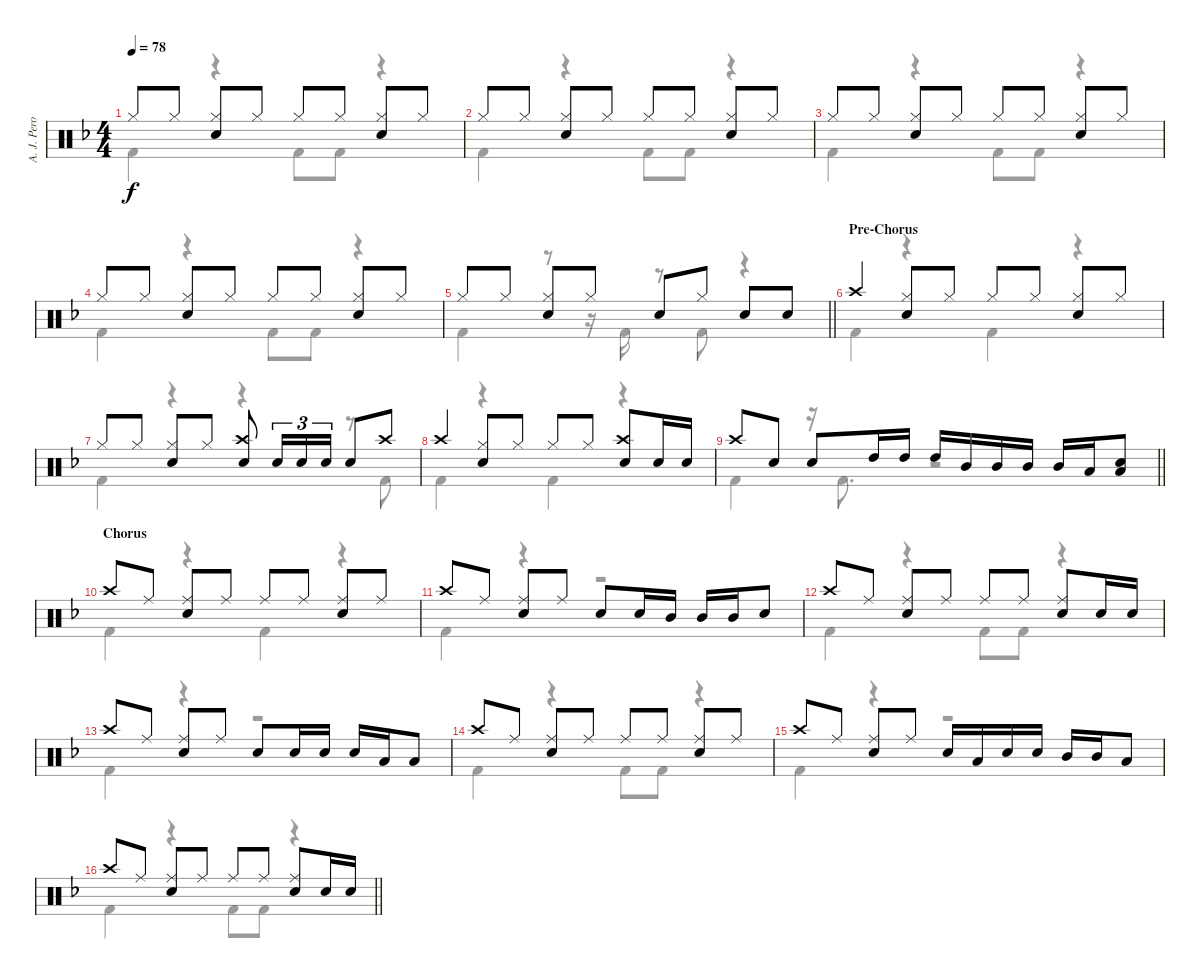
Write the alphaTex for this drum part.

\track ("A. J. Pero" "A. J. Pero") {instrument percussion}
\staff {score}
\articulation defaults
\voice
\ts (4 4)
\tempo 78
\clef neutral
\ks dminor "Hi-Hat (closed)".8{dy f} "Hi-Hat (closed)".8
("Hi-Hat (closed)" "Snare (hit) 2").8 "Hi-Hat (closed)".8 "Hi-Hat (closed)".8 "Hi-Hat (closed)".8 ("Hi-Hat (closed)" "Snare (hit) 2").8 "Hi-Hat (closed)".8 |
"Hi-Hat (closed)".8 "Hi-Hat (closed)".8 ("Hi-Hat (closed)" "Snare (hit) 2").8 "Hi-Hat (closed)".8 "Hi-Hat (closed)".8 "Hi-Hat (closed)".8 ("Hi-Hat (closed)" "Snare (hit) 2").8 "Hi-Hat (closed)".8 |
"Hi-Hat (closed)".8 "Hi-Hat (closed)".8 ("Hi-Hat (closed)" "Snare (hit) 2").8 "Hi-Hat (closed)".8 "Hi-Hat (closed)".8 "Hi-Hat (closed)".8 ("Hi-Hat (closed)" "Snare (hit) 2").8 "Hi-Hat (closed)".8 |
"Hi-Hat (closed)".8 "Hi-Hat (closed)".8 ("Hi-Hat (closed)" "Snare (hit) 2").8 "Hi-Hat (closed)".8 "Hi-Hat (closed)".8 "Hi-Hat (closed)".8 ("Hi-Hat (closed)" "Snare (hit) 2").8 "Hi-Hat (closed)".8 |
\barLineRight lightlight "Hi-Hat (closed)".8 "Hi-Hat (closed)".8
("Hi-Hat (closed)" "Snare (hit) 2").8 "Hi-Hat (closed)".8 "Snare (hit) 2".8 "Hi-Hat (closed)".8 "Snare (hit) 2".8 "Snare (hit) 2".8 |
\section ("" "Pre-Chorus")
"Crash high (hit)".4 ("Hi-Hat (closed)" "Snare (hit) 2").8 "Hi-Hat (closed)".8 "Hi-Hat (closed)".8 "Hi-Hat (closed)".8 ("Hi-Hat (closed)" "Snare (hit) 2").8 "Hi-Hat (closed)".8 |
"Hi-Hat (closed)".8 "Hi-Hat (closed)".8 ("Hi-Hat (closed)" "Snare (hit) 2").8 "Hi-Hat (closed)".8 ("Crash high (hit)" "Snare (hit) 2").8 "Snare (hit) 2".16{tu (3 2)} "Snare (hit) 2".16{tu (3 2)} "Snare (hit) 2".16{tu (3 2)} "Snare (hit) 2".8 "Crash high (hit)".8 |
"Crash high (hit)".4 ("Hi-Hat (closed)" "Snare (hit) 2").8 "Hi-Hat (closed)".8 "Hi-Hat (closed)".8 "Hi-Hat (closed)".8 ("Crash high (hit)" "Snare (hit) 2").8 "Snare (hit) 2".16 "Snare (hit) 2".16 |
\barLineRight lightlight "Crash high (hit)".8 "Snare (hit) 2".8 "Snare (hit) 2".8 "High Tom (hit)".16 "High Tom (hit)".16 "High Tom (hit)".16 "Mid Tom (hit)".16 "Mid Tom (hit)".16 "Mid Tom (hit)".16 "Mid Tom (hit)".16 "Low Tom (hit)".16
("Snare (hit) 2" "Low Tom (hit)").8 |
\section ("" "Chorus")
"Crash high (hit)".8 "Ride (middle)".8 ("Ride (middle)" "Snare (hit) 2").8 "Ride (middle)".8 "Ride (middle)".8 "Ride (middle)".8 ("Ride (middle)" "Snare (hit) 2").8 "Ride (middle)".8 |
"Crash high (hit)".8 "Ride (middle)".8 ("Ride (middle)" "Snare (hit) 2").8 "Ride (middle)".8 "Snare (hit) 2".8 "Snare (hit) 2".16 "Mid Tom (hit)".16 "Mid Tom (hit)".16 "Mid Tom (hit)".16 "Snare (hit) 2".8 |
"Crash high (hit)".8 "Ride (middle)".8 ("Ride (middle)" "Snare (hit) 2").8 "Ride (middle)".8 "Ride (middle)".8 "Ride (middle)".8 ("Ride (middle)" "Snare (hit) 2").8 "Snare (hit) 2".16 "Snare (hit) 2".16 |
"Crash high (hit)".8 "Ride (middle)".8 ("Ride (middle)" "Snare (hit) 2").8 "Ride (middle)".8 "Snare (hit) 2".8 "Snare (hit) 2".16 "Snare (hit) 2".16 "Snare (hit) 2".16 "Low Tom (hit)".16 "Low Tom (hit)".8 |
"Crash high (hit)".8 "Ride (middle)".8 ("Ride (middle)" "Snare (hit) 2").8 "Ride (middle)".8 "Ride (middle)".8 "Ride (middle)".8 ("Ride (middle)" "Snare (hit) 2").8 "Ride (middle)".8 |
"Crash high (hit)".8 "Ride (middle)".8 ("Ride (middle)" "Snare (hit) 2").8 "Ride (middle)".8 "Snare (hit) 2".16 "Low Tom (hit)".16 "Snare (hit) 2".16 "Snare (hit) 2".16 "Mid Tom (hit)".16 "Mid Tom (hit)".16 "Low Tom (hit)".8 |
\barLineRight lightlight "Crash high (hit)".8 "Ride (middle)".8
("Ride (middle)" "Snare (hit) 2").8 "Ride (middle)".8 "Ride (middle)".8 "Ride (middle)".8 ("Ride (middle)" "Snare (hit) 2").8 "Snare (hit) 2".16 "Snare (hit) 2".16
\voice
\clef neutral
\ottava regular
\simile none
\ks dminor "Kick (hit) 2".4{dy f}
r.4 "Kick (hit) 2".8 "Kick (hit) 2".8 r.4 |
"Kick (hit) 2".4 r.4 "Kick (hit) 2".8 "Kick (hit) 2".8 r.4 |
"Kick (hit) 2".4 r.4 "Kick (hit) 2".8 "Kick (hit) 2".8 r.4 |
"Kick (hit) 2".4 r.4 "Kick (hit) 2".8 "Kick (hit) 2".8 r.4 |
\barLineRight lightlight "Kick (hit) 2".4
r.8 r.16 "Kick (hit) 2".16 r.8 "Kick (hit) 2".8 r.4 |
"Kick (hit) 2".4 r.4 "Kick (hit) 2".4 r.4 |
"Kick (hit) 2".4 r.4 r.4 r.8 "Kick (hit) 2".8 |
"Kick (hit) 2".4 r.4 "Kick (hit) 2".4 r.4 |
\barLineRight lightlight "Kick (hit) 2".4
r.16 "Kick (hit) 2".8{d} r.2 |
"Kick (hit) 2".4 r.4 "Kick (hit) 2".4 r.4 |
"Kick (hit) 2".4 r.4 r.2 |
"Kick (hit) 2".4 r.4 "Kick (hit) 2".8 "Kick (hit) 2".8 r.4 |
"Kick (hit) 2".4 r.4 r.2 |
"Kick (hit) 2".4 r.4 "Kick (hit) 2".8 "Kick (hit) 2".8 r.4 |
"Kick (hit) 2".4 r.4 r.2 |
\barLineRight lightlight "Kick (hit) 2".4
r.4 "Kick (hit) 2".8 "Kick (hit) 2".8 r.4
